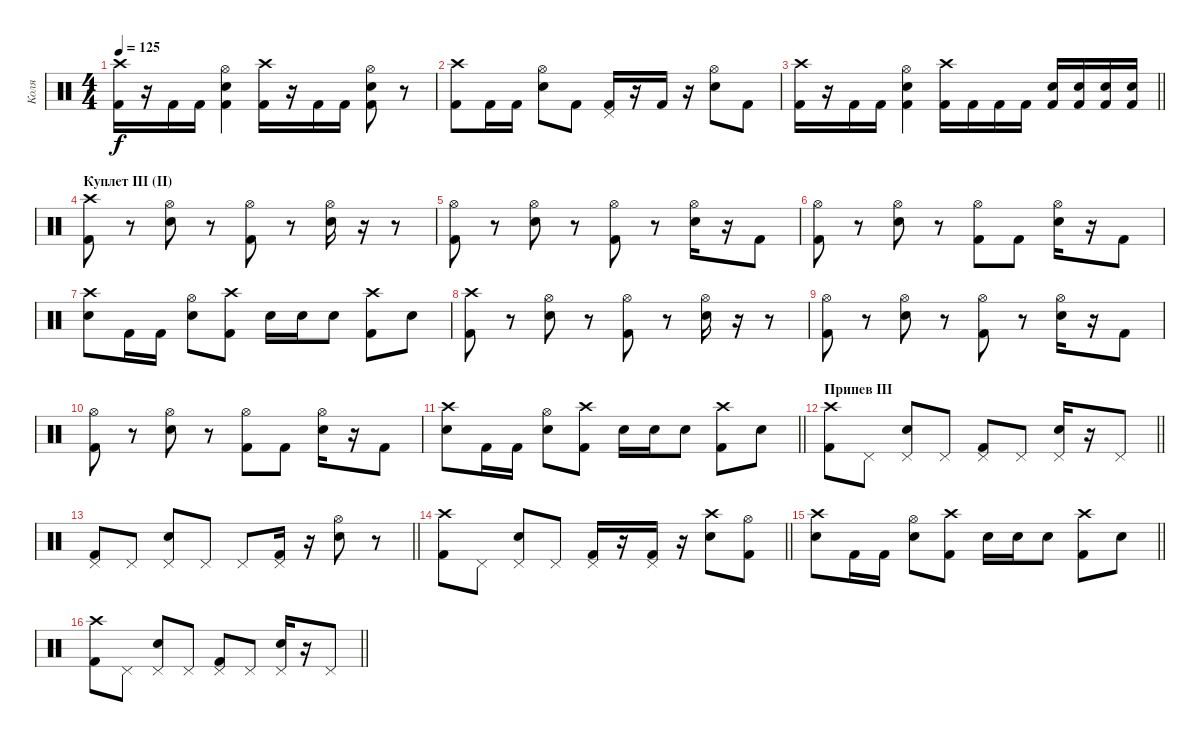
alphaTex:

\track ("Коля" "Коля") {instrument percussion}
\staff {score}
\articulation defaults
\ts (4 4)
\tempo 125
\clef neutral
\ks c
("Kick (hit) 2" "Crash high (hit)").16{dy f} r.16 "Kick (hit) 2".16 "Kick (hit) 2".16 ("Kick (hit) 2" "Electric Snare (hit)" "Hi-Hat (open)").4 ("Kick (hit) 2" "Crash high (hit)").16 r.16 "Kick (hit) 2".16 "Kick (hit) 2".16 ("Kick (hit) 2" "Electric Snare (hit)" "Hi-Hat (open)").8 r.8 |
("Kick (hit) 2" "Crash high (hit)").8 "Kick (hit) 2".16 "Kick (hit) 2".16 ("Electric Snare (hit)" "Hi-Hat (open)").8 "Kick (hit) 2".8 ("Kick (hit) 2" "Pedal Hi-Hat (hit)").16 r.16 "Kick (hit) 2".16 r.16 ("Electric Snare (hit)" "Hi-Hat (open)").8 "Kick (hit) 2".8 |
\barLineRight lightlight
("Kick (hit) 2" "Crash high (hit)").16 r.16 "Kick (hit) 2".16 "Kick (hit) 2".16 ("Kick (hit) 2" "Electric Snare (hit)" "Hi-Hat (open)").4 ("Kick (hit) 2" "Crash high (hit)").16 "Kick (hit) 2".16 "Kick (hit) 2".16 "Kick (hit) 2".16 ("Kick (hit) 2" "Electric Snare (hit)").16 ("Kick (hit) 2" "Electric Snare (hit)").16 ("Kick (hit) 2" "Electric Snare (hit)").16 ("Kick (hit) 2" "Electric Snare (hit)").16 |
\section ("" "Куплет III (II)")
("Kick (hit) 2" "Crash high (hit)").8 r.8 ("Electric Snare (hit)" "Hi-Hat (open)").8 r.8 ("Kick (hit) 2" "Hi-Hat (open)").8 r.8 ("Electric Snare (hit)" "Hi-Hat (open)").16 r.16 r.8 |
("Kick (hit) 2" "Hi-Hat (open)").8 r.8 ("Electric Snare (hit)" "Hi-Hat (open)").8 r.8 ("Kick (hit) 2" "Hi-Hat (open)").8 r.8 ("Electric Snare (hit)" "Hi-Hat (open)").16 r.16 "Kick (hit) 2".8 |
("Kick (hit) 2" "Hi-Hat (open)").8 r.8 ("Electric Snare (hit)" "Hi-Hat (open)").8 r.8 ("Kick (hit) 2" "Hi-Hat (open)").8 "Kick (hit) 2".8 ("Electric Snare (hit)" "Hi-Hat (open)").16 r.16 "Kick (hit) 2".8 |
("Electric Snare (hit)" "Crash high (hit)").8 "Kick (hit) 2".16 "Kick (hit) 2".16 ("Electric Snare (hit)" "Hi-Hat (open)").8 ("Kick (hit) 2" "Crash high (hit)").8 "Electric Snare (hit)".16 "Electric Snare (hit)".16 "Electric Snare (hit)".8 ("Kick (hit) 2" "Crash high (hit)").8 "Electric Snare (hit)".8 |
("Kick (hit) 2" "Crash high (hit)").8 r.8 ("Electric Snare (hit)" "Hi-Hat (open)").8 r.8 ("Kick (hit) 2" "Hi-Hat (open)").8 r.8 ("Electric Snare (hit)" "Hi-Hat (open)").16 r.16 r.8 |
("Kick (hit) 2" "Hi-Hat (open)").8 r.8 ("Electric Snare (hit)" "Hi-Hat (open)").8 r.8 ("Kick (hit) 2" "Hi-Hat (open)").8 r.8 ("Electric Snare (hit)" "Hi-Hat (open)").16 r.16 "Kick (hit) 2".8 |
("Kick (hit) 2" "Hi-Hat (open)").8 r.8 ("Electric Snare (hit)" "Hi-Hat (open)").8 r.8 ("Kick (hit) 2" "Hi-Hat (open)").8 "Kick (hit) 2".8 ("Electric Snare (hit)" "Hi-Hat (open)").16 r.16 "Kick (hit) 2".8 |
\barLineRight lightlight
("Electric Snare (hit)" "Crash high (hit)").8 "Kick (hit) 2".16 "Kick (hit) 2".16 ("Electric Snare (hit)" "Hi-Hat (open)").8 ("Kick (hit) 2" "Crash high (hit)").8 "Electric Snare (hit)".16 "Electric Snare (hit)".16 "Electric Snare (hit)".8 ("Kick (hit) 2" "Crash high (hit)").8 "Electric Snare (hit)".8 |
\section ("" "Припев III")
\barLineRight lightlight
("Kick (hit) 2" "Crash high (hit)").8 "Pedal Hi-Hat (hit)".8 ("Electric Snare (hit)" "Pedal Hi-Hat (hit)").8 "Pedal Hi-Hat (hit)".8 ("Kick (hit) 2" "Pedal Hi-Hat (hit)").8 "Pedal Hi-Hat (hit)".8 ("Electric Snare (hit)" "Pedal Hi-Hat (hit)").16 r.16 "Pedal Hi-Hat (hit)".8 |
\barLineRight lightlight
("Kick (hit) 2" "Pedal Hi-Hat (hit)").8 "Pedal Hi-Hat (hit)".8 ("Electric Snare (hit)" "Pedal Hi-Hat (hit)").8 "Pedal Hi-Hat (hit)".8 "Pedal Hi-Hat (hit)".8 ("Kick (hit) 2" "Pedal Hi-Hat (hit)").16 r.16 ("Electric Snare (hit)" "Hi-Hat (open)").8 r.8 |
\barLineRight lightlight
("Kick (hit) 2" "Crash high (hit)").8 "Pedal Hi-Hat (hit)".8 ("Electric Snare (hit)" "Pedal Hi-Hat (hit)").8 "Pedal Hi-Hat (hit)".8 ("Kick (hit) 2" "Pedal Hi-Hat (hit)").16 r.16 ("Kick (hit) 2" "Pedal Hi-Hat (hit)").16 r.16 ("Electric Snare (hit)" "Crash high (hit)").8 ("Kick (hit) 2" "Hi-Hat (open)").8 |
\barLineRight lightlight
("Electric Snare (hit)" "Crash high (hit)").8 "Kick (hit) 2".16 "Kick (hit) 2".16 ("Electric Snare (hit)" "Hi-Hat (open)").8 ("Kick (hit) 2" "Crash high (hit)").8 "Electric Snare (hit)".16 "Electric Snare (hit)".16 "Electric Snare (hit)".8 ("Kick (hit) 2" "Crash high (hit)").8 "Electric Snare (hit)".8 |
\barLineRight lightlight
("Kick (hit) 2" "Crash high (hit)").8 "Pedal Hi-Hat (hit)".8 ("Electric Snare (hit)" "Pedal Hi-Hat (hit)").8 "Pedal Hi-Hat (hit)".8 ("Kick (hit) 2" "Pedal Hi-Hat (hit)").8 "Pedal Hi-Hat (hit)".8 ("Electric Snare (hit)" "Pedal Hi-Hat (hit)").16 r.16 "Pedal Hi-Hat (hit)".8
